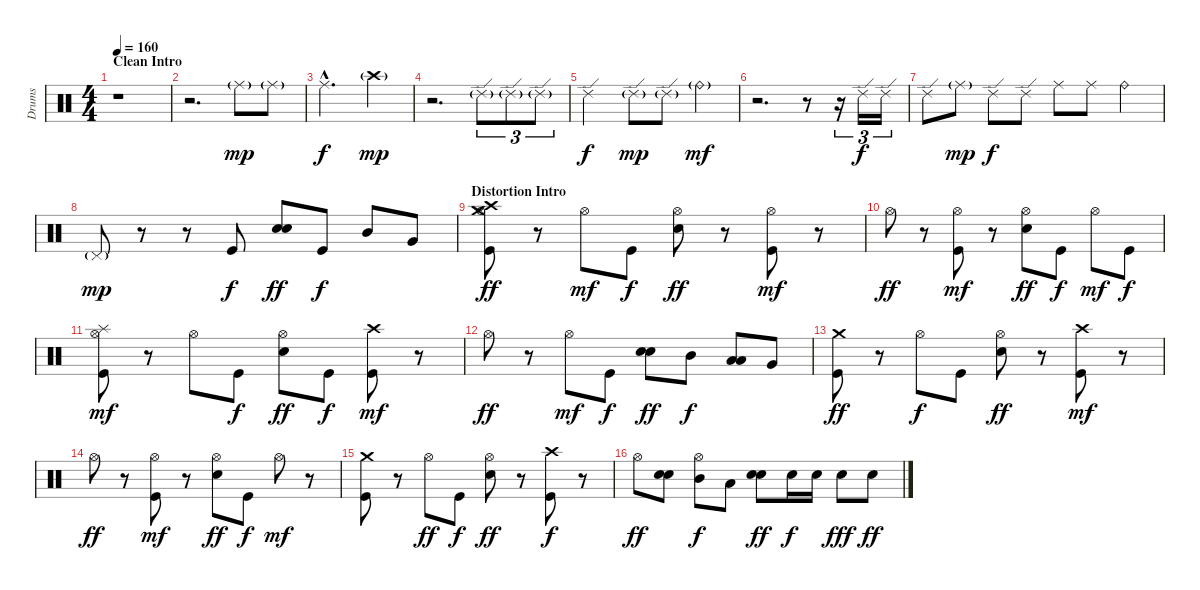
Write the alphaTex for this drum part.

\track ("Drums" "Drums") {instrument percussion}
\staff {score}
\articulation defaults
\ts (4 4)
\section ("" "Clean Intro")
\tempo 160
\clef neutral
\ks c
r.1{dy mp} |
r.2{d} "Ride (middle)"{g}.8 "Ride (middle)"{g}.8 |
"Ride (middle)"{hac}.2{d dy f} "Crash high (hit)"{g}.4{dy mp} |
r.2{d} "Ride (edge) 2"{g}.8{tu (3 2)} "Ride (edge) 2"{g}.8{tu (3 2)} "Ride (edge) 2"{g}.8{tu (3 2)} |
"Ride (edge) 2".2{dy f} "Ride (edge) 2"{g}.8{dy mp} "Ride (edge) 2"{g}.8 "Ride (bell)"{g}.4{dy mf} |
r.2{d} r.8 r.16{tu (3 2)} "Ride (edge) 2".16{tu (3 2) dy f} "Ride (edge) 2".16{tu (3 2)} |
"Ride (edge) 2".8 "Ride (middle)"{g}.8{dy mp} "Ride (edge) 2".8{dy f} "Ride (edge) 2".8 "Ride (middle)".8 "Ride (middle)".8 "Ride (bell)".4 |
"Pedal Hi-Hat (hit)"{g}.8{dy mp} r.8 r.8 "Kick (hit)".8{dy f} ("Electric Snare (hit)" "Electric Snare (hit)").8{dy ff} "Kick (hit)".8{dy f} "Mid Tom (hit)".8 "Very Low Tom (hit)".8 |
\section ("" "Distortion Intro")
("Kick (hit)" "Hi-Hat (open)" "Crash high (hit)" "Crash medium (hit)").8{dy ff} r.8 "Hi-Hat (open)".8{dy mf} "Kick (hit)".8{dy f} ("Electric Snare (hit)" "Hi-Hat (open)").8{dy ff} r.8 ("Kick (hit)" "Hi-Hat (open)").8{dy mf} r.8 |
"Hi-Hat (open)".8{dy ff} r.8 ("Kick (hit)" "Hi-Hat (open)").8{dy mf} r.8 ("Electric Snare (hit)" "Hi-Hat (open)").8{dy ff} "Kick (hit)".8{dy f} "Hi-Hat (open)".8{dy mf} "Kick (hit)".8{dy f} |
("Kick (hit)" "Hi-Hat (open)" "Splash (hit)").8{dy mf} r.8 "Hi-Hat (open)".8 "Kick (hit)".8{dy f} ("Electric Snare (hit)" "Hi-Hat (open)").8{dy ff} "Kick (hit)".8{dy f} ("Kick (hit)" "Crash high (hit)").8{dy mf} r.8 |
"Hi-Hat (open)".8{dy ff} r.8 "Hi-Hat (open)".8{dy mf} "Kick (hit)".8{dy f} ("Electric Snare (hit)" "Electric Snare (hit)").8{dy ff} "Mid Tom (hit)".8{dy f} ("Low Tom (hit)" "Low Tom (hit)").8 "Very Low Tom (hit)".8 |
("Kick (hit)" "Crash medium (hit)").8{dy ff} r.8 "Hi-Hat (open)".8{dy f} "Kick (hit)".8 ("Electric Snare (hit)" "Hi-Hat (open)").8{dy ff} r.8 ("Kick (hit)" "Crash high (hit)").8{dy mf} r.8 |
"Hi-Hat (open)".8{dy ff} r.8 ("Kick (hit)" "Hi-Hat (open)").8{dy mf} r.8 ("Electric Snare (hit)" "Hi-Hat (open)").8{dy ff} "Kick (hit)".8{dy f} "Hi-Hat (open)".8{dy mf} r.8 |
("Kick (hit)" "Crash medium (hit)").8 r.8 "Hi-Hat (open)".8{dy ff} "Kick (hit)".8{dy f} ("Electric Snare (hit)" "Hi-Hat (open)").8{dy ff} r.8 ("Kick (hit)" "Crash high (hit)").8{dy f} r.8 |
"Hi-Hat (open)".8{dy ff} ("Electric Snare (hit)" "Electric Snare (hit)").8 ("Mid Tom (hit)" "Hi-Hat (open)").8{dy f} "Low Tom (hit)".8 ("Electric Snare (hit)" "Electric Snare (hit)").8{dy ff} "Electric Snare (hit)".16{dy f} "Electric Snare (hit)".16 "Electric Snare (hit)".8{dy fff} "Electric Snare (hit)".8{dy ff}
